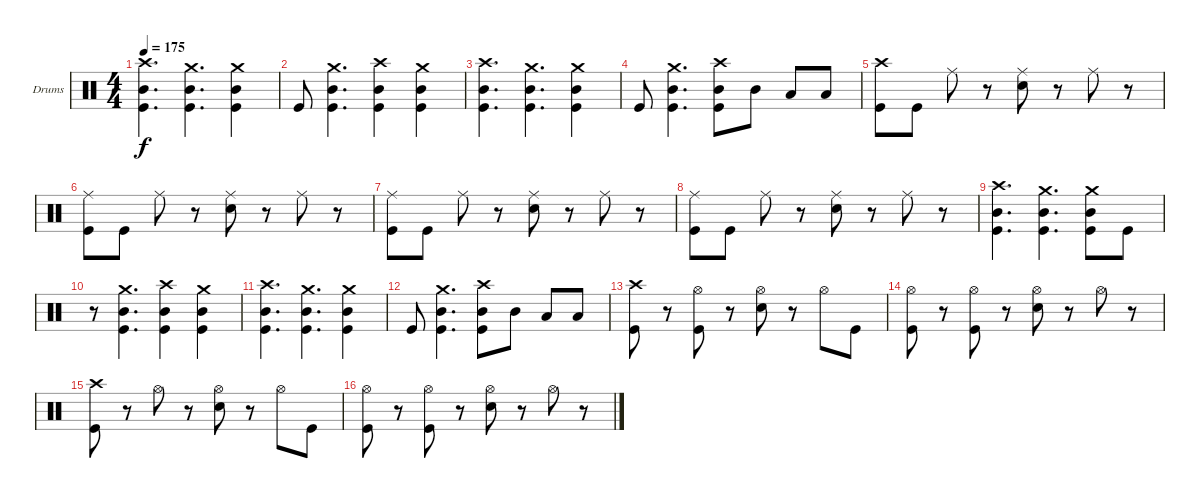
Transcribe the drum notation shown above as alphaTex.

\bracketExtendMode groupsimilarinstruments
\firstSystemTrackNameOrientation horizontal
\otherSystemsTrackNameOrientation horizontal
\track ("Drumkit" "Drums") {instrument percussion}
\staff {score}
\articulation defaults
\ts (4 4)
\tempo 175
\clef neutral
\ks c
("Crash high (hit)" "Mid Tom (hit)" "Kick (hit)").4{d dy f} ("Crash medium (hit)" "Mid Tom (hit)" "Kick (hit)").4{d} ("Crash medium (hit)" "Mid Tom (hit)" "Kick (hit)").4 |
"Kick (hit)".8 ("Crash medium (hit)" "Mid Tom (hit)" "Kick (hit)").4{d} ("Crash high (hit)" "Mid Tom (hit)" "Kick (hit)").4 ("Crash medium (hit)" "Mid Tom (hit)" "Kick (hit)").4 |
("Crash high (hit)" "Mid Tom (hit)" "Kick (hit)").4{d} ("Crash medium (hit)" "Mid Tom (hit)" "Kick (hit)").4{d} ("Crash medium (hit)" "Mid Tom (hit)" "Kick (hit)").4 |
"Kick (hit)".8 ("Crash medium (hit)" "Mid Tom (hit)" "Kick (hit)").4{d} ("Crash high (hit)" "Mid Tom (hit)" "Kick (hit)").8 "Mid Tom (hit)".8 "Low Tom (hit)".8 "Low Tom (hit)".8 |
("Crash high (hit)" "Kick (hit)").8 "Kick (hit)".8 "Ride (middle)".8 r.8 ("Ride (middle)" "Snare (hit) 2").8 r.8 "Ride (middle)".8 r.8 |
("Ride (middle)" "Kick (hit)").8 "Kick (hit)".8 "Ride (middle)".8 r.8 ("Ride (middle)" "Snare (hit) 2").8 r.8 "Ride (middle)".8 r.8 |
("Ride (middle)" "Kick (hit)").8 "Kick (hit)".8 "Ride (middle)".8 r.8 ("Ride (middle)" "Snare (hit) 2").8 r.8 "Ride (middle)".8 r.8 |
("Ride (middle)" "Kick (hit)").8 "Kick (hit)".8 "Ride (middle)".8 r.8 ("Ride (middle)" "Snare (hit) 2").8 r.8 "Ride (middle)".8 r.8 |
("Crash high (hit)" "Mid Tom (hit)" "Kick (hit)").4{d} ("Crash medium (hit)" "Mid Tom (hit)" "Kick (hit)").4{d} ("Crash medium (hit)" "Mid Tom (hit)" "Kick (hit)").8 "Kick (hit)".8 |
r.8 ("Crash medium (hit)" "Mid Tom (hit)" "Kick (hit)").4{d} ("Crash high (hit)" "Mid Tom (hit)" "Kick (hit)").4 ("Crash medium (hit)" "Mid Tom (hit)" "Kick (hit)").4 |
("Crash high (hit)" "Mid Tom (hit)" "Kick (hit)").4{d} ("Crash medium (hit)" "Mid Tom (hit)" "Kick (hit)").4{d} ("Crash medium (hit)" "Mid Tom (hit)" "Kick (hit)").4 |
"Kick (hit)".8 ("Crash medium (hit)" "Mid Tom (hit)" "Kick (hit)").4{d} ("Crash high (hit)" "Mid Tom (hit)" "Kick (hit)").8 "Mid Tom (hit)".8 "Low Tom (hit)".8 "Low Tom (hit)".8 |
("Crash high (hit)" "Kick (hit)").8 r.8 ("Hi-Hat (open)" "Kick (hit)").8 r.8 ("Hi-Hat (open)" "Snare (hit) 2").8 r.8 "Hi-Hat (open)".8 "Kick (hit)".8 |
("Hi-Hat (open)" "Kick (hit)").8 r.8 ("Hi-Hat (open)" "Kick (hit)").8 r.8 ("Hi-Hat (open)" "Snare (hit) 2").8 r.8 "Hi-Hat (open)".8 r.8 |
("Crash high (hit)" "Kick (hit)").8 r.8 "Hi-Hat (open)".8 r.8 ("Hi-Hat (open)" "Snare (hit) 2").8 r.8 "Hi-Hat (open)".8 "Kick (hit)".8 |
("Hi-Hat (open)" "Kick (hit)").8 r.8 ("Hi-Hat (open)" "Kick (hit)").8 r.8 ("Hi-Hat (open)" "Snare (hit) 2").8 r.8 "Hi-Hat (open)".8 r.8
